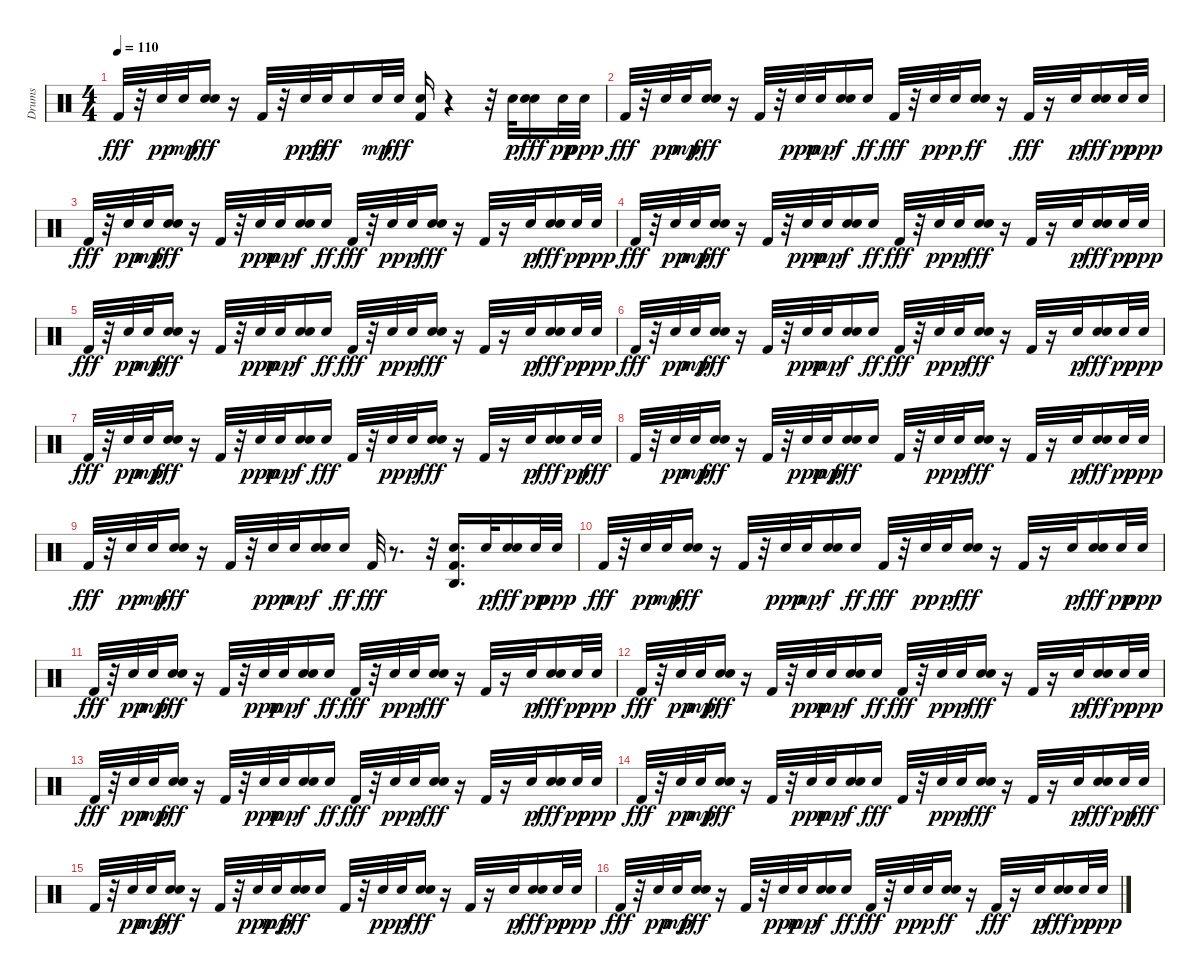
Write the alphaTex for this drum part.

\track ("Drums" "Drums") {instrument percussion}
\staff {score}
\articulation defaults
\ts (4 4)
\tempo 110
\clef neutral
\ks c "Kick (hit) 2".32{dy fff}
r.32 "Electric Snare (hit)".32{dy pp} "Electric Snare (hit)".32{dy mp} ("Snare (hit) 2" "Electric Snare (hit)").16{dy fff} r.16 "Kick (hit) 2".32 r.32 "Snare (hit) 2".32{dy ppp} "Electric Snare (hit)".32{dy fff} "Snare (hit) 2".16 "Snare (hit) 2".32{dy mp} "Snare (hit) 2".32{dy fff} ("Kick (hit) 2" "Snare (hit) 2").16 r.4 r.32 "Electric Snare (hit)".32{dy p} ("Snare (hit) 2" "Electric Snare (hit)").16{dy fff} "Electric Snare (hit)".32{dy pp} "Electric Snare (hit)".32{dy ppp} |
"Kick (hit) 2".32{dy fff} r.32 "Electric Snare (hit)".32{dy pp} "Electric Snare (hit)".32{dy mp} ("Snare (hit) 2" "Electric Snare (hit)").16{dy fff} r.16 "Kick (hit) 2".32 r.32 "Electric Snare (hit)".32{dy ppp} "Electric Snare (hit)".32{dy mp} ("Snare (hit) 2" "Electric Snare (hit)").16{dy f} "Electric Snare (hit)".16{dy ff} "Kick (hit) 2".32{dy fff} r.32 "Electric Snare (hit)".32{dy pp} "Electric Snare (hit)".32{dy p} ("Snare (hit) 2" "Electric Snare (hit)").16{dy ff} r.16 "Kick (hit) 2".32{dy fff} r.16 "Electric Snare (hit)".32{dy p} ("Snare (hit) 2" "Electric Snare (hit)").16{dy fff} "Electric Snare (hit)".32{dy pp} "Electric Snare (hit)".32{dy ppp} |
"Kick (hit) 2".32{dy fff} r.32 "Electric Snare (hit)".32{dy pp} "Electric Snare (hit)".32{dy mp} ("Snare (hit) 2" "Electric Snare (hit)").16{dy fff} r.16 "Kick (hit) 2".32 r.32 "Electric Snare (hit)".32{dy ppp} "Electric Snare (hit)".32{dy mp} ("Snare (hit) 2" "Electric Snare (hit)").16{dy f} "Electric Snare (hit)".16{dy ff} "Kick (hit) 2".32{dy fff} r.32 "Electric Snare (hit)".32{dy pp} "Electric Snare (hit)".32{dy p} ("Snare (hit) 2" "Electric Snare (hit)").16{dy fff} r.16 "Kick (hit) 2".32 r.16 "Electric Snare (hit)".32{dy p} ("Snare (hit) 2" "Electric Snare (hit)").16{dy fff} "Electric Snare (hit)".32{dy pp} "Electric Snare (hit)".32{dy ppp} |
"Kick (hit) 2".32{dy fff} r.32 "Electric Snare (hit)".32{dy pp} "Electric Snare (hit)".32{dy mp} ("Snare (hit) 2" "Electric Snare (hit)").16{dy fff} r.16 "Kick (hit) 2".32 r.32 "Electric Snare (hit)".32{dy ppp} "Electric Snare (hit)".32{dy mp} ("Snare (hit) 2" "Electric Snare (hit)").16{dy f} "Electric Snare (hit)".16{dy ff} "Kick (hit) 2".32{dy fff} r.32 "Electric Snare (hit)".32{dy pp} "Electric Snare (hit)".32{dy p} ("Snare (hit) 2" "Electric Snare (hit)").16{dy fff} r.16 "Kick (hit) 2".32 r.16 "Electric Snare (hit)".32{dy p} ("Snare (hit) 2" "Electric Snare (hit)").16{dy fff} "Electric Snare (hit)".32{dy pp} "Electric Snare (hit)".32{dy ppp} |
"Kick (hit) 2".32{dy fff} r.32 "Electric Snare (hit)".32{dy pp} "Electric Snare (hit)".32{dy mp} ("Snare (hit) 2" "Electric Snare (hit)").16{dy fff} r.16 "Kick (hit) 2".32 r.32 "Electric Snare (hit)".32{dy ppp} "Electric Snare (hit)".32{dy mp} ("Snare (hit) 2" "Electric Snare (hit)").16{dy f} "Electric Snare (hit)".16{dy ff} "Kick (hit) 2".32{dy fff} r.32 "Electric Snare (hit)".32{dy pp} "Electric Snare (hit)".32{dy p} ("Snare (hit) 2" "Electric Snare (hit)").16{dy fff} r.16 "Kick (hit) 2".32 r.16 "Electric Snare (hit)".32{dy p} ("Snare (hit) 2" "Electric Snare (hit)").16{dy fff} "Electric Snare (hit)".32{dy pp} "Electric Snare (hit)".32{dy ppp} |
"Kick (hit) 2".32{dy fff} r.32 "Electric Snare (hit)".32{dy pp} "Electric Snare (hit)".32{dy mp} ("Snare (hit) 2" "Electric Snare (hit)").16{dy fff} r.16 "Kick (hit) 2".32 r.32 "Electric Snare (hit)".32{dy ppp} "Electric Snare (hit)".32{dy mp} ("Snare (hit) 2" "Electric Snare (hit)").16{dy f} "Electric Snare (hit)".16{dy ff} "Kick (hit) 2".32{dy fff} r.32 "Electric Snare (hit)".32{dy pp} "Electric Snare (hit)".32{dy p} ("Snare (hit) 2" "Electric Snare (hit)").16{dy fff} r.16 "Kick (hit) 2".32 r.16 "Electric Snare (hit)".32{dy p} ("Snare (hit) 2" "Electric Snare (hit)").16{dy fff} "Electric Snare (hit)".32{dy pp} "Electric Snare (hit)".32{dy ppp} |
"Kick (hit) 2".32{dy fff} r.32 "Electric Snare (hit)".32{dy pp} "Electric Snare (hit)".32{dy mp} ("Snare (hit) 2" "Electric Snare (hit)").16{dy fff} r.16 "Kick (hit) 2".32 r.32 "Electric Snare (hit)".32{dy ppp} "Electric Snare (hit)".32{dy mp} ("Snare (hit) 2" "Electric Snare (hit)").16{dy f} "Electric Snare (hit)".16{dy fff} "Kick (hit) 2".32 r.32 "Electric Snare (hit)".32{dy pp} "Electric Snare (hit)".32{dy p} ("Snare (hit) 2" "Electric Snare (hit)").16{dy fff} r.16 "Kick (hit) 2".32 r.16 "Electric Snare (hit)".32{dy p} ("Snare (hit) 2" "Electric Snare (hit)").16{dy fff} "Electric Snare (hit)".32{dy pp} "Electric Snare (hit)".32{dy fff} |
"Kick (hit) 2".32 r.32 "Electric Snare (hit)".32{dy pp} "Electric Snare (hit)".32{dy mp} ("Snare (hit) 2" "Electric Snare (hit)").16{dy fff} r.16 "Kick (hit) 2".32 r.32 "Electric Snare (hit)".32{dy ppp} "Electric Snare (hit)".32{dy mp} ("Snare (hit) 2" "Electric Snare (hit)").16{dy fff} "Electric Snare (hit)".16 "Kick (hit) 2".32 r.32 "Electric Snare (hit)".32{dy pp} "Electric Snare (hit)".32{dy p} ("Snare (hit) 2" "Electric Snare (hit)").16{dy fff} r.16 "Kick (hit) 2".32 r.16 "Electric Snare (hit)".32{dy p} ("Snare (hit) 2" "Electric Snare (hit)").16{dy fff} "Electric Snare (hit)".32{dy pp} "Electric Snare (hit)".32{dy ppp} |
"Kick (hit) 2".32{dy fff} r.32 "Electric Snare (hit)".32{dy pp} "Electric Snare (hit)".32{dy mp} ("Snare (hit) 2" "Electric Snare (hit)").16{dy fff} r.16 "Kick (hit) 2".32 r.32 "Electric Snare (hit)".32{dy ppp} "Electric Snare (hit)".32{dy mp} ("Snare (hit) 2" "Electric Snare (hit)").16{dy f} "Electric Snare (hit)".16{dy ff} "Kick (hit) 2".32{dy fff} r.8{d} r.32 ("Agogo high (hit)" "Kick (hit) 2" "Snare (hit) 2").16{d} "Electric Snare (hit)".32{dy p} ("Snare (hit) 2" "Electric Snare (hit)").16{dy fff} "Electric Snare (hit)".32{dy pp} "Electric Snare (hit)".32{dy ppp} |
"Kick (hit) 2".32{dy fff} r.32 "Electric Snare (hit)".32{dy pp} "Electric Snare (hit)".32{dy mp} ("Snare (hit) 2" "Electric Snare (hit)").16{dy fff} r.16 "Kick (hit) 2".32 r.32 "Electric Snare (hit)".32{dy ppp} "Electric Snare (hit)".32{dy mp} ("Snare (hit) 2" "Electric Snare (hit)").16{dy f} "Electric Snare (hit)".16{dy ff} "Kick (hit) 2".32{dy fff} r.32 "Electric Snare (hit)".32{dy pp} "Electric Snare (hit)".32{dy p} ("Snare (hit) 2" "Electric Snare (hit)").16{dy fff} r.16 "Kick (hit) 2".32 r.16 "Electric Snare (hit)".32{dy p} ("Snare (hit) 2" "Electric Snare (hit)").16{dy fff} "Electric Snare (hit)".32{dy pp} "Electric Snare (hit)".32{dy ppp} |
"Kick (hit) 2".32{dy fff} r.32 "Electric Snare (hit)".32{dy pp} "Electric Snare (hit)".32{dy mp} ("Snare (hit) 2" "Electric Snare (hit)").16{dy fff} r.16 "Kick (hit) 2".32 r.32 "Electric Snare (hit)".32{dy ppp} "Electric Snare (hit)".32{dy mp} ("Snare (hit) 2" "Electric Snare (hit)").16{dy f} "Electric Snare (hit)".16{dy ff} "Kick (hit) 2".32{dy fff} r.32 "Electric Snare (hit)".32{dy pp} "Electric Snare (hit)".32{dy p} ("Snare (hit) 2" "Electric Snare (hit)").16{dy fff} r.16 "Kick (hit) 2".32 r.16 "Electric Snare (hit)".32{dy p} ("Snare (hit) 2" "Electric Snare (hit)").16{dy fff} "Electric Snare (hit)".32{dy pp} "Electric Snare (hit)".32{dy ppp} |
"Kick (hit) 2".32{dy fff} r.32 "Electric Snare (hit)".32{dy pp} "Electric Snare (hit)".32{dy mp} ("Snare (hit) 2" "Electric Snare (hit)").16{dy fff} r.16 "Kick (hit) 2".32 r.32 "Electric Snare (hit)".32{dy ppp} "Electric Snare (hit)".32{dy mp} ("Snare (hit) 2" "Electric Snare (hit)").16{dy f} "Electric Snare (hit)".16{dy ff} "Kick (hit) 2".32{dy fff} r.32 "Electric Snare (hit)".32{dy pp} "Electric Snare (hit)".32{dy p} ("Snare (hit) 2" "Electric Snare (hit)").16{dy fff} r.16 "Kick (hit) 2".32 r.16 "Electric Snare (hit)".32{dy p} ("Snare (hit) 2" "Electric Snare (hit)").16{dy fff} "Electric Snare (hit)".32{dy pp} "Electric Snare (hit)".32{dy ppp} |
"Kick (hit) 2".32{dy fff} r.32 "Electric Snare (hit)".32{dy pp} "Electric Snare (hit)".32{dy mp} ("Snare (hit) 2" "Electric Snare (hit)").16{dy fff} r.16 "Kick (hit) 2".32 r.32 "Electric Snare (hit)".32{dy ppp} "Electric Snare (hit)".32{dy mp} ("Snare (hit) 2" "Electric Snare (hit)").16{dy f} "Electric Snare (hit)".16{dy ff} "Kick (hit) 2".32{dy fff} r.32 "Electric Snare (hit)".32{dy pp} "Electric Snare (hit)".32{dy p} ("Snare (hit) 2" "Electric Snare (hit)").16{dy fff} r.16 "Kick (hit) 2".32 r.16 "Electric Snare (hit)".32{dy p} ("Snare (hit) 2" "Electric Snare (hit)").16{dy fff} "Electric Snare (hit)".32{dy pp} "Electric Snare (hit)".32{dy ppp} |
"Kick (hit) 2".32{dy fff} r.32 "Electric Snare (hit)".32{dy pp} "Electric Snare (hit)".32{dy mp} ("Snare (hit) 2" "Electric Snare (hit)").16{dy fff} r.16 "Kick (hit) 2".32 r.32 "Electric Snare (hit)".32{dy ppp} "Electric Snare (hit)".32{dy mp} ("Snare (hit) 2" "Electric Snare (hit)").16{dy f} "Electric Snare (hit)".16{dy fff} "Kick (hit) 2".32 r.32 "Electric Snare (hit)".32{dy pp} "Electric Snare (hit)".32{dy p} ("Snare (hit) 2" "Electric Snare (hit)").16{dy fff} r.16 "Kick (hit) 2".32 r.16 "Electric Snare (hit)".32{dy p} ("Snare (hit) 2" "Electric Snare (hit)").16{dy fff} "Electric Snare (hit)".32{dy pp} "Electric Snare (hit)".32{dy fff} |
"Kick (hit) 2".32 r.32 "Electric Snare (hit)".32{dy pp} "Electric Snare (hit)".32{dy mp} ("Snare (hit) 2" "Electric Snare (hit)").16{dy fff} r.16 "Kick (hit) 2".32 r.32 "Electric Snare (hit)".32{dy ppp} "Electric Snare (hit)".32{dy mp} ("Snare (hit) 2" "Electric Snare (hit)").16{dy fff} "Electric Snare (hit)".16 "Kick (hit) 2".32 r.32 "Electric Snare (hit)".32{dy pp} "Electric Snare (hit)".32{dy p} ("Snare (hit) 2" "Electric Snare (hit)").16{dy fff} r.16 "Kick (hit) 2".32 r.16 "Electric Snare (hit)".32{dy p} ("Snare (hit) 2" "Electric Snare (hit)").16{dy fff} "Electric Snare (hit)".32{dy pp} "Electric Snare (hit)".32{dy ppp} |
"Kick (hit) 2".32{dy fff} r.32 "Electric Snare (hit)".32{dy pp} "Electric Snare (hit)".32{dy mp} ("Snare (hit) 2" "Electric Snare (hit)").16{dy fff} r.16 "Kick (hit) 2".32 r.32 "Electric Snare (hit)".32{dy ppp} "Electric Snare (hit)".32{dy mp} ("Snare (hit) 2" "Electric Snare (hit)").16{dy f} "Electric Snare (hit)".16{dy ff} "Kick (hit) 2".32{dy fff} r.32 "Electric Snare (hit)".32{dy pp} "Electric Snare (hit)".32{dy p} ("Snare (hit) 2" "Electric Snare (hit)").16{dy ff} r.16 "Kick (hit) 2".32{dy fff} r.16 "Electric Snare (hit)".32{dy p} ("Snare (hit) 2" "Electric Snare (hit)").16{dy fff} "Electric Snare (hit)".32{dy pp} "Electric Snare (hit)".32{dy ppp}
